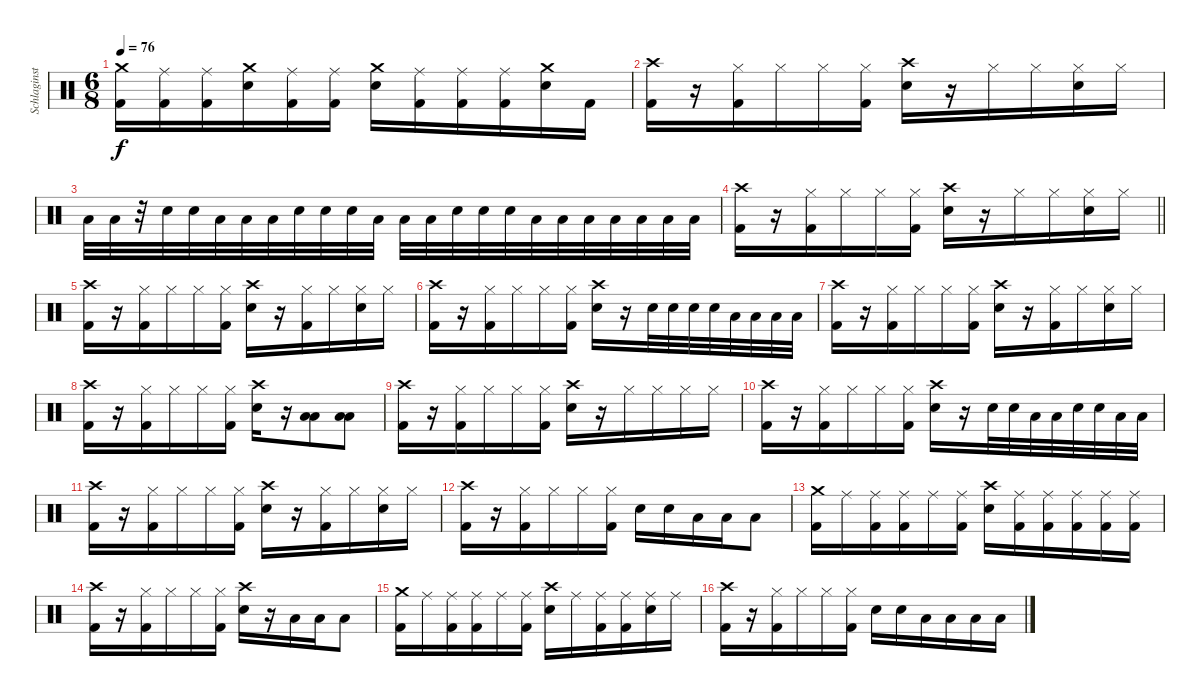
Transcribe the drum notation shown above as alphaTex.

\track ("Schlaginstrumente - Auswahl" "Schlaginst") {instrument percussion}
\staff {score}
\articulation defaults
\ts (6 8)
\tempo 76
\clef neutral
\ks c
("Crash medium (hit)" "Kick (hit) 2").16{dy f} ("Ride (middle)" "Kick (hit) 2").16 ("Ride (middle)" "Kick (hit) 2").16 ("Crash medium (hit)" "Snare (hit) 2").16 ("Ride (middle)" "Kick (hit) 2").16 ("Ride (middle)" "Kick (hit) 2").16 ("Crash medium (hit)" "Snare (hit) 2").16 ("Ride (middle)" "Kick (hit) 2").16 ("Ride (middle)" "Kick (hit) 2").16 ("Ride (middle)" "Kick (hit) 2").16 ("Crash medium (hit)" "Snare (hit) 2").16 "Kick (hit) 2".16 |
("Crash high (hit)" "Kick (hit) 2").16 r.16 ("Hi-Hat (closed)" "Kick (hit) 2").16 "Hi-Hat (closed)".16 "Hi-Hat (closed)".16 ("Hi-Hat (closed)" "Kick (hit) 2").16 ("Crash high (hit)" "Snare (hit) 2").16 r.16 "Hi-Hat (closed)".16 "Hi-Hat (closed)".16 ("Hi-Hat (closed)" "Snare (hit) 2").16 "Hi-Hat (closed)".16 |
"Low Floor Tom (hit)".32 "Low Floor Tom (hit)".32 r.32 "Snare (hit) 2".32 "Snare (hit) 2".32 "Low Tom (hit)".32 "Low Tom (hit)".32 "Low Tom (hit)".32 "Snare (hit) 2".32 "Snare (hit) 2".32 "Snare (hit) 2".32 "Low Tom (hit)".32 "Low Tom (hit)".32 "Low Tom (hit)".32 "Snare (hit) 2".32 "Snare (hit) 2".32 "Snare (hit) 2".32 "Low Tom (hit)".32 "Low Tom (hit)".32 "Low Tom (hit)".32 "Low Tom (hit)".32 "Low Tom (hit)".32 "Low Tom (hit)".32 "Low Tom (hit)".32 |
\barLineRight lightlight
("Crash high (hit)" "Kick (hit) 2").16 r.16 ("Hi-Hat (closed)" "Kick (hit) 2").16 "Hi-Hat (closed)".16 "Hi-Hat (closed)".16 ("Hi-Hat (closed)" "Kick (hit) 2").16 ("Crash high (hit)" "Snare (hit) 2").16 r.16 "Hi-Hat (closed)".16 "Hi-Hat (closed)".16 ("Hi-Hat (closed)" "Snare (hit) 2").16 "Hi-Hat (closed)".16 |
("Crash high (hit)" "Kick (hit) 2").16 r.16 ("Hi-Hat (closed)" "Kick (hit) 2").16 "Hi-Hat (closed)".16 "Hi-Hat (closed)".16 ("Hi-Hat (closed)" "Kick (hit) 2").16 ("Crash high (hit)" "Snare (hit) 2").16 r.16 ("Hi-Hat (closed)" "Kick (hit) 2").16 "Hi-Hat (closed)".16 ("Hi-Hat (closed)" "Snare (hit) 2").16 "Hi-Hat (closed)".16 |
("Crash high (hit)" "Kick (hit) 2").16 r.16 ("Hi-Hat (closed)" "Kick (hit) 2").16 "Hi-Hat (closed)".16 "Hi-Hat (closed)".16 ("Hi-Hat (closed)" "Kick (hit) 2").16 ("Crash high (hit)" "Snare (hit) 2").16 r.16 "Snare (hit) 2".32 "Snare (hit) 2".32 "Snare (hit) 2".32 "Snare (hit) 2".32 "Low Tom (hit)".32 "Low Tom (hit)".32 "Low Tom (hit)".32 "Low Tom (hit)".32 |
("Crash high (hit)" "Kick (hit) 2").16 r.16 ("Hi-Hat (closed)" "Kick (hit) 2").16 "Hi-Hat (closed)".16 "Hi-Hat (closed)".16 ("Hi-Hat (closed)" "Kick (hit) 2").16 ("Crash high (hit)" "Snare (hit) 2").16 r.16 ("Hi-Hat (closed)" "Kick (hit) 2").16 "Hi-Hat (closed)".16 ("Hi-Hat (closed)" "Snare (hit) 2").16 "Hi-Hat (closed)".16 |
("Crash high (hit)" "Kick (hit) 2").16 r.16 ("Hi-Hat (closed)" "Kick (hit) 2").16 "Hi-Hat (closed)".16 "Hi-Hat (closed)".16 ("Hi-Hat (closed)" "Kick (hit) 2").16 ("Crash high (hit)" "Snare (hit) 2").16 r.16 ("Low Tom (hit)" "Low Tom (hit)").8{bd 240} ("Low Floor Tom (hit)" "Low Floor Tom (hit)").8{bd 240} |
("Crash high (hit)" "Kick (hit) 2").16 r.16 ("Hi-Hat (closed)" "Kick (hit) 2").16 "Hi-Hat (closed)".16 "Hi-Hat (closed)".16 ("Hi-Hat (closed)" "Kick (hit) 2").16 ("Crash high (hit)" "Snare (hit) 2").16 r.16 "Hi-Hat (closed)".16 "Hi-Hat (closed)".16 "Hi-Hat (closed)".16 "Hi-Hat (closed)".16 |
("Crash high (hit)" "Kick (hit) 2").16 r.16 ("Hi-Hat (closed)" "Kick (hit) 2").16 "Hi-Hat (closed)".16 "Hi-Hat (closed)".16 ("Hi-Hat (closed)" "Kick (hit) 2").16 ("Crash high (hit)" "Snare (hit) 2").16 r.16 "Snare (hit) 2".32 "Snare (hit) 2".32 "Low Tom (hit)".32 "Low Tom (hit)".32 "Snare (hit) 2".32 "Snare (hit) 2".32 "Low Tom (hit)".32 "Low Tom (hit)".32 |
("Crash high (hit)" "Kick (hit) 2").16 r.16 ("Hi-Hat (closed)" "Kick (hit) 2").16 "Hi-Hat (closed)".16 "Hi-Hat (closed)".16 ("Hi-Hat (closed)" "Kick (hit) 2").16 ("Crash high (hit)" "Snare (hit) 2").16 r.16 ("Hi-Hat (closed)" "Kick (hit) 2").16 "Hi-Hat (closed)".16 ("Hi-Hat (closed)" "Snare (hit) 2").16 "Hi-Hat (closed)".16 |
("Crash high (hit)" "Kick (hit) 2").16 r.16 ("Hi-Hat (closed)" "Kick (hit) 2").16 "Hi-Hat (closed)".16 "Hi-Hat (closed)".16 ("Hi-Hat (closed)" "Kick (hit) 2").16 "Snare (hit) 2".16 "Snare (hit) 2".16 "Low Tom (hit)".16 "Low Tom (hit)".16 "Low Floor Tom (hit)".8 |
("Crash medium (hit)" "Kick (hit) 2").16 "Ride (middle)".16 ("Ride (middle)" "Kick (hit) 2").16 ("Ride (middle)" "Kick (hit) 2").16 "Ride (middle)".16 ("Ride (middle)" "Kick (hit) 2").16 ("Crash high (hit)" "Snare (hit) 2").16 ("Ride (middle)" "Kick (hit) 2").16 ("Ride (middle)" "Kick (hit) 2").16 ("Ride (middle)" "Kick (hit) 2").16 ("Ride (middle)" "Kick (hit) 2").16 ("Ride (middle)" "Kick (hit) 2").16 |
("Crash high (hit)" "Kick (hit) 2").16 r.16 ("Hi-Hat (closed)" "Kick (hit) 2").16 "Hi-Hat (closed)".16 "Hi-Hat (closed)".16 ("Hi-Hat (closed)" "Kick (hit) 2").16 ("Crash high (hit)" "Snare (hit) 2").16 r.16 "Low Tom (hit)".16 "Low Tom (hit)".16 "Low Floor Tom (hit)".8 |
("Crash medium (hit)" "Kick (hit) 2").16 "Ride (middle)".16 ("Ride (middle)" "Kick (hit) 2").16 ("Ride (middle)" "Kick (hit) 2").16 "Ride (middle)".16 ("Ride (middle)" "Kick (hit) 2").16 ("Crash high (hit)" "Snare (hit) 2").16 "Ride (middle)".16 ("Ride (middle)" "Kick (hit) 2").16 ("Ride (middle)" "Kick (hit) 2").16 ("Ride (middle)" "Snare (hit) 2").16 "Ride (middle)".16 |
("Crash high (hit)" "Kick (hit) 2").16 r.16 ("Hi-Hat (closed)" "Kick (hit) 2").16 "Hi-Hat (closed)".16 "Hi-Hat (closed)".16 ("Hi-Hat (closed)" "Kick (hit) 2").16 "Snare (hit) 2".16 "Snare (hit) 2".16 "Low Tom (hit)".16 "Low Tom (hit)".16 "Low Floor Tom (hit)".16 "Low Floor Tom (hit)".16
